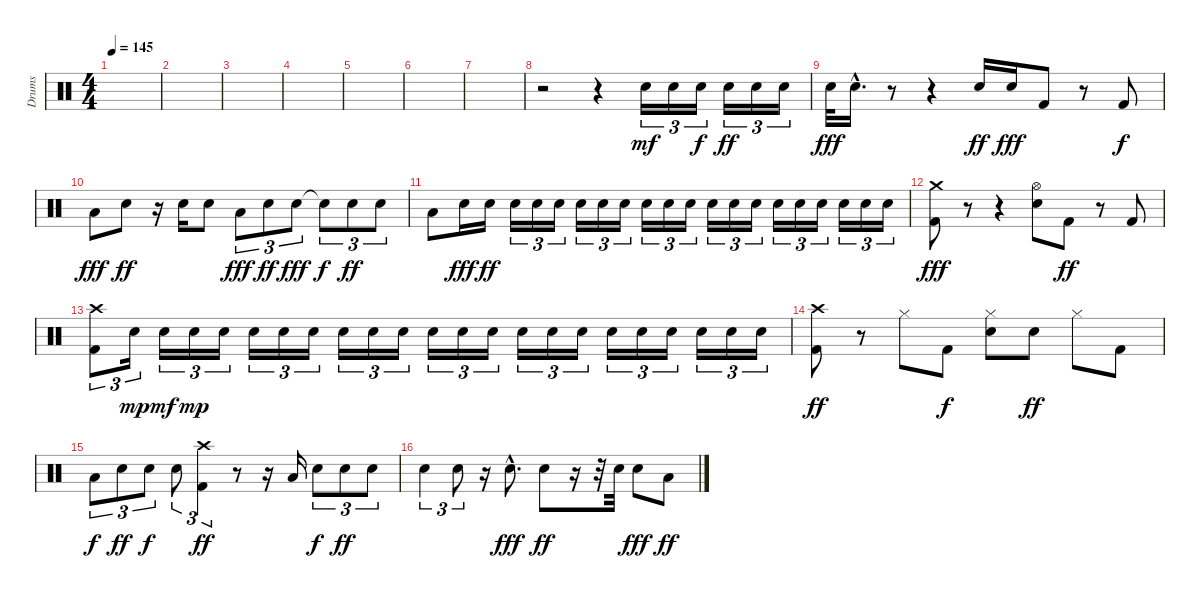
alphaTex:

\track ("Drums" "Drums") {instrument percussion}
\staff {score}
\articulation defaults
\ts (4 4)
\tempo 145
\clef neutral
\ks c
|
|
|
|
|
|
|
r.2 r.4 "Snare (hit) 2".16{tu (3 2) dy mf} "Snare (hit) 2".16{tu (3 2)} "Snare (hit) 2".16{tu (3 2) dy f} "Snare (hit) 2".16{tu (3 2) dy ff} "Snare (hit) 2".16{tu (3 2)} "Snare (hit) 2".16{tu (3 2)} |
"Snare (hit) 2".32{dy fff} "Snare (hit) 2"{hac}.16{d} r.8 r.4 "Snare (hit) 2".16{dy ff} "Snare (hit) 2".16{dy fff} "Kick (hit) 2".8 r.8 "Kick (hit) 2".8{dy f} |
"Low Tom (hit)".8{dy fff} "Snare (hit) 2".8{dy ff} r.16 "Snare (hit) 2".16 "Snare (hit) 2".8 "Low Tom (hit)".8{tu (3 2) dy fff} "Snare (hit) 2".8{tu (3 2) dy ff} "Snare (hit) 2".8{tu (3 2) dy fff} "Snare (hit)"{t}.8{tu (3 2) dy f} "Snare (hit) 2".8{tu (3 2) dy ff} "Snare (hit) 2".8{tu (3 2)} |
"Low Tom (hit)".8 "Snare (hit) 2".16{dy fff} "Snare (hit) 2".16{dy ff} "Snare (hit) 2".16{tu (3 2)} "Snare (hit) 2".16{tu (3 2)} "Snare (hit) 2".16{tu (3 2)} "Snare (hit) 2".16{tu (3 2)} "Snare (hit) 2".16{tu (3 2)} "Snare (hit) 2".16{tu (3 2)} "Snare (hit) 2".16{tu (3 2)} "Snare (hit) 2".16{tu (3 2)} "Snare (hit) 2".16{tu (3 2)} "Snare (hit) 2".16{tu (3 2)} "Snare (hit) 2".16{tu (3 2)} "Snare (hit) 2".16{tu (3 2)} "Snare (hit) 2".16{tu (3 2)} "Snare (hit) 2".16{tu (3 2)} "Snare (hit) 2".16{tu (3 2)} "Snare (hit) 2".16{tu (3 2)} "Snare (hit) 2".16{tu (3 2)} "Snare (hit) 2".16{tu (3 2)} |
("Crash medium (hit)" "Kick (hit) 2").8{dy fff} r.8 r.4 ("Hi-Hat (open)" "Snare (hit) 2").8 "Kick (hit) 2".8{dy ff} r.8 "Kick (hit) 2".8 |
("Crash high (hit)" "Kick (hit) 2").8{tu (3 2)} "Snare (hit) 2".16{tu (3 2) dy mp} "Snare (hit) 2".16{tu (3 2) dy mf} "Snare (hit) 2".16{tu (3 2) dy mp} "Snare (hit) 2".16{tu (3 2)} "Snare (hit) 2".16{tu (3 2)} "Snare (hit) 2".16{tu (3 2)} "Snare (hit) 2".16{tu (3 2)} "Snare (hit) 2".16{tu (3 2)} "Snare (hit) 2".16{tu (3 2)} "Snare (hit) 2".16{tu (3 2)} "Snare (hit) 2".16{tu (3 2)} "Snare (hit) 2".16{tu (3 2)} "Snare (hit) 2".16{tu (3 2)} "Snare (hit) 2".16{tu (3 2)} "Snare (hit) 2".16{tu (3 2)} "Snare (hit) 2".16{tu (3 2)} "Snare (hit) 2".16{tu (3 2)} "Snare (hit) 2".16{tu (3 2)} "Snare (hit) 2".16{tu (3 2)} "Snare (hit) 2".16{tu (3 2)} "Snare (hit) 2".16{tu (3 2)} "Snare (hit) 2".16{tu (3 2)} |
("Crash high (hit)" "Kick (hit) 2").8{dy ff} r.8 "Hi-Hat (closed)".8 "Kick (hit) 2".8{dy f} ("Hi-Hat (closed)" "Snare (hit) 2").8 "Snare (hit) 2".8{dy ff} "Hi-Hat (closed)".8 "Kick (hit) 2".8 |
"Low Tom (hit)".8{tu (3 2) dy f} "Snare (hit) 2".8{tu (3 2) dy ff} "Snare (hit) 2".8{tu (3 2) dy f} "Snare (hit) 2".8{tu (3 2)} ("Crash high (hit)" "Kick (hit) 2").4{tu (3 2) dy ff} r.8 r.16 "Low Tom (hit)".16 "Snare (hit) 2".8{tu (3 2) dy f} "Snare (hit) 2".8{tu (3 2) dy ff} "Snare (hit) 2".8{tu (3 2)} |
"Snare (hit) 2".4{tu (3 2)} "Snare (hit) 2".8{tu (3 2)} r.16 "Snare (hit) 2"{hac}.8{d dy fff} "Snare (hit) 2".8{dy ff} r.16 r.32 "Snare (hit) 2".32 "Snare (hit) 2".8{dy fff} "Low Tom (hit)".8{dy ff}
